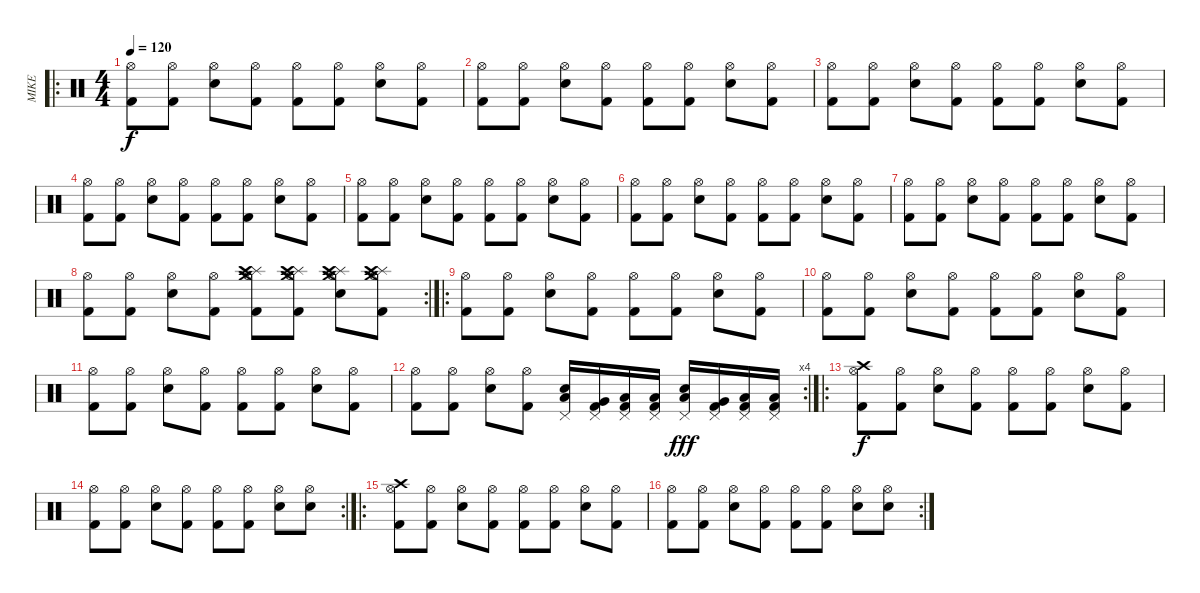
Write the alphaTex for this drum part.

\track ("MIKE" "MIKE") {instrument percussion}
\staff {score}
\articulation defaults
\ro
\ts (4 4)
\tempo 120
\clef neutral
\ks c
("Hi-Hat (open)" "Kick (hit) 2").8{dy f} ("Hi-Hat (open)" "Kick (hit) 2").8 ("Hi-Hat (open)" "Snare (hit) 2").8 ("Hi-Hat (open)" "Kick (hit) 2").8 ("Hi-Hat (open)" "Kick (hit) 2").8 ("Hi-Hat (open)" "Kick (hit) 2").8 ("Hi-Hat (open)" "Snare (hit) 2").8 ("Hi-Hat (open)" "Kick (hit) 2").8 |
("Hi-Hat (open)" "Kick (hit) 2").8 ("Hi-Hat (open)" "Kick (hit) 2").8 ("Hi-Hat (open)" "Snare (hit) 2").8 ("Hi-Hat (open)" "Kick (hit) 2").8 ("Hi-Hat (open)" "Kick (hit) 2").8 ("Hi-Hat (open)" "Kick (hit) 2").8 ("Hi-Hat (open)" "Snare (hit) 2").8 ("Hi-Hat (open)" "Kick (hit) 2").8 |
("Hi-Hat (open)" "Kick (hit) 2").8 ("Hi-Hat (open)" "Kick (hit) 2").8 ("Hi-Hat (open)" "Snare (hit) 2").8 ("Hi-Hat (open)" "Kick (hit) 2").8 ("Hi-Hat (open)" "Kick (hit) 2").8 ("Hi-Hat (open)" "Kick (hit) 2").8 ("Hi-Hat (open)" "Snare (hit) 2").8 ("Hi-Hat (open)" "Kick (hit) 2").8 |
("Hi-Hat (open)" "Kick (hit) 2").8 ("Hi-Hat (open)" "Kick (hit) 2").8 ("Hi-Hat (open)" "Snare (hit) 2").8 ("Hi-Hat (open)" "Kick (hit) 2").8 ("Hi-Hat (open)" "Kick (hit) 2").8 ("Hi-Hat (open)" "Kick (hit) 2").8 ("Hi-Hat (open)" "Snare (hit) 2").8 ("Hi-Hat (open)" "Kick (hit) 2").8 |
("Hi-Hat (open)" "Kick (hit) 2").8 ("Hi-Hat (open)" "Kick (hit) 2").8 ("Hi-Hat (open)" "Snare (hit) 2").8 ("Hi-Hat (open)" "Kick (hit) 2").8 ("Hi-Hat (open)" "Kick (hit) 2").8 ("Hi-Hat (open)" "Kick (hit) 2").8 ("Hi-Hat (open)" "Snare (hit) 2").8 ("Hi-Hat (open)" "Kick (hit) 2").8 |
("Hi-Hat (open)" "Kick (hit) 2").8 ("Hi-Hat (open)" "Kick (hit) 2").8 ("Hi-Hat (open)" "Snare (hit) 2").8 ("Hi-Hat (open)" "Kick (hit) 2").8 ("Hi-Hat (open)" "Kick (hit) 2").8 ("Hi-Hat (open)" "Kick (hit) 2").8 ("Hi-Hat (open)" "Snare (hit) 2").8 ("Hi-Hat (open)" "Kick (hit) 2").8 |
("Hi-Hat (open)" "Kick (hit) 2").8 ("Hi-Hat (open)" "Kick (hit) 2").8 ("Hi-Hat (open)" "Snare (hit) 2").8 ("Hi-Hat (open)" "Kick (hit) 2").8 ("Hi-Hat (open)" "Kick (hit) 2").8 ("Hi-Hat (open)" "Kick (hit) 2").8 ("Hi-Hat (open)" "Snare (hit) 2").8 ("Hi-Hat (open)" "Kick (hit) 2").8 |
\rc 2
("Hi-Hat (open)" "Kick (hit) 2").8 ("Hi-Hat (open)" "Kick (hit) 2").8 ("Hi-Hat (open)" "Snare (hit) 2").8 ("Hi-Hat (open)" "Kick (hit) 2").8 ("Splash (hit)" "Crash medium (hit)" "Crash high (hit)" "Hi-Hat (open)" "Kick (hit) 2").8 ("Splash (hit)" "Crash medium (hit)" "Crash high (hit)" "Hi-Hat (open)" "Kick (hit) 2").8 ("Splash (hit)" "Crash medium (hit)" "Crash high (hit)" "Hi-Hat (open)" "Snare (hit) 2").8 ("Splash (hit)" "Crash medium (hit)" "Crash high (hit)" "Hi-Hat (open)" "Kick (hit) 2").8 |
\ro
("Hi-Hat (open)" "Kick (hit) 2").8 ("Hi-Hat (open)" "Kick (hit) 2").8 ("Hi-Hat (open)" "Snare (hit) 2").8 ("Hi-Hat (open)" "Kick (hit) 2").8 ("Hi-Hat (open)" "Kick (hit) 2").8 ("Hi-Hat (open)" "Kick (hit) 2").8 ("Hi-Hat (open)" "Snare (hit) 2").8 ("Hi-Hat (open)" "Kick (hit) 2").8 |
("Hi-Hat (open)" "Kick (hit) 2").8 ("Hi-Hat (open)" "Kick (hit) 2").8 ("Hi-Hat (open)" "Snare (hit) 2").8 ("Hi-Hat (open)" "Kick (hit) 2").8 ("Hi-Hat (open)" "Kick (hit) 2").8 ("Hi-Hat (open)" "Kick (hit) 2").8 ("Hi-Hat (open)" "Snare (hit) 2").8 ("Hi-Hat (open)" "Kick (hit) 2").8 |
("Hi-Hat (open)" "Kick (hit) 2").8 ("Hi-Hat (open)" "Kick (hit) 2").8 ("Hi-Hat (open)" "Snare (hit) 2").8 ("Hi-Hat (open)" "Kick (hit) 2").8 ("Hi-Hat (open)" "Kick (hit) 2").8 ("Hi-Hat (open)" "Kick (hit) 2").8 ("Hi-Hat (open)" "Snare (hit) 2").8 ("Hi-Hat (open)" "Kick (hit) 2").8 |
\rc 4
("Hi-Hat (open)" "Kick (hit) 2").8 ("Hi-Hat (open)" "Kick (hit) 2").8 ("Hi-Hat (open)" "Snare (hit) 2").8 ("Hi-Hat (open)" "Kick (hit) 2").8 ("Pedal Hi-Hat (hit)" "Low Tom (hit)" "Snare (hit) 2").16 ("Pedal Hi-Hat (hit)" "Very Low Tom (hit)" "Kick (hit) 2").16 ("Pedal Hi-Hat (hit)" "Low Floor Tom (hit)" "Kick (hit) 2").16 ("Pedal Hi-Hat (hit)" "Low Floor Tom (hit)" "Kick (hit) 2").16 ("Pedal Hi-Hat (hit)" "Low Tom (hit)" "Snare (hit) 2").16{dy fff} ("Pedal Hi-Hat (hit)" "Very Low Tom (hit)" "Kick (hit) 2").16 ("Pedal Hi-Hat (hit)" "Low Floor Tom (hit)" "Kick (hit) 2").16 ("Pedal Hi-Hat (hit)" "Low Floor Tom (hit)" "Kick (hit) 2").16 |
\ro
("Crash high (hit)" "Hi-Hat (open)" "Kick (hit) 2").8{dy f} ("Hi-Hat (open)" "Kick (hit) 2").8 ("Hi-Hat (open)" "Snare (hit) 2").8 ("Hi-Hat (open)" "Kick (hit) 2").8 ("Hi-Hat (open)" "Kick (hit) 2").8 ("Hi-Hat (open)" "Kick (hit) 2").8 ("Hi-Hat (open)" "Snare (hit) 2").8 ("Hi-Hat (open)" "Kick (hit) 2").8 |
\rc 2
("Hi-Hat (open)" "Kick (hit) 2").8 ("Hi-Hat (open)" "Kick (hit) 2").8 ("Hi-Hat (open)" "Snare (hit) 2").8 ("Hi-Hat (open)" "Kick (hit) 2").8 ("Hi-Hat (open)" "Kick (hit) 2").8 ("Hi-Hat (open)" "Kick (hit) 2").8 ("Hi-Hat (open)" "Snare (hit) 2").8 ("Hi-Hat (open)" "Snare (hit) 2").8 |
\ro
("Crash high (hit)" "Hi-Hat (open)" "Kick (hit) 2").8 ("Hi-Hat (open)" "Kick (hit) 2").8 ("Hi-Hat (open)" "Snare (hit) 2").8 ("Hi-Hat (open)" "Kick (hit) 2").8 ("Hi-Hat (open)" "Kick (hit) 2").8 ("Hi-Hat (open)" "Kick (hit) 2").8 ("Hi-Hat (open)" "Snare (hit) 2").8 ("Hi-Hat (open)" "Kick (hit) 2").8 |
\rc 2
("Hi-Hat (open)" "Kick (hit) 2").8 ("Hi-Hat (open)" "Kick (hit) 2").8 ("Hi-Hat (open)" "Snare (hit) 2").8 ("Hi-Hat (open)" "Kick (hit) 2").8 ("Hi-Hat (open)" "Kick (hit) 2").8 ("Hi-Hat (open)" "Kick (hit) 2").8 ("Hi-Hat (open)" "Snare (hit) 2").8 ("Hi-Hat (open)" "Snare (hit) 2").8
